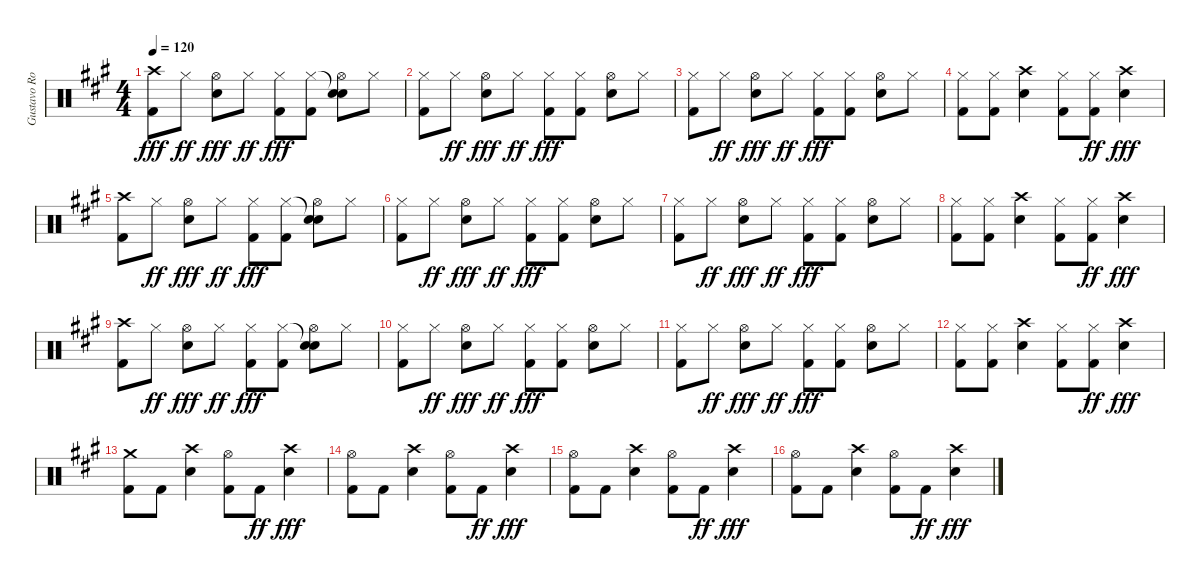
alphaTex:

\track ("Gustavo Rowek" "Gustavo Ro") {instrument percussion}
\staff {score}
\articulation defaults
\ts (4 4)
\tempo 120
\clef neutral
\ks a
("Crash high (hit)" "Kick (hit) 2").8{dy fff} "Hi-Hat (closed)".8{dy ff} ("Hi-Hat (open)" "Snare (hit) 2").8{dy fff} "Hi-Hat (closed)".8{dy ff} ("Hi-Hat (closed)" "Kick (hit) 2").8{dy fff} ("Hi-Hat (closed)" "Kick (hit) 2").8 ("Snare (hit)"{t} "Hi-Hat (open)" "Snare (hit) 2").8 "Hi-Hat (closed)".8 |
("Hi-Hat (closed)" "Kick (hit) 2").8 "Hi-Hat (closed)".8{dy ff} ("Hi-Hat (open)" "Snare (hit) 2").8{dy fff} "Hi-Hat (closed)".8{dy ff} ("Hi-Hat (closed)" "Kick (hit) 2").8{dy fff} ("Hi-Hat (closed)" "Kick (hit) 2").8 ("Hi-Hat (open)" "Snare (hit) 2").8 "Hi-Hat (closed)".8 |
("Hi-Hat (closed)" "Kick (hit) 2").8 "Hi-Hat (closed)".8{dy ff} ("Hi-Hat (open)" "Snare (hit) 2").8{dy fff} "Hi-Hat (closed)".8{dy ff} ("Hi-Hat (closed)" "Kick (hit) 2").8{dy fff} ("Hi-Hat (closed)" "Kick (hit) 2").8 ("Hi-Hat (open)" "Snare (hit) 2").8 "Hi-Hat (closed)".8 |
("Hi-Hat (closed)" "Kick (hit) 2").8 ("Hi-Hat (closed)" "Kick (hit) 2").8 ("Crash high (hit)" "Snare (hit) 2").4 ("Hi-Hat (closed)" "Kick (hit) 2").8 ("Hi-Hat (closed)" "Kick (hit) 2").8{dy ff} ("Crash high (hit)" "Snare (hit) 2").4{dy fff} |
("Crash high (hit)" "Kick (hit) 2").8 "Hi-Hat (closed)".8{dy ff} ("Hi-Hat (open)" "Snare (hit) 2").8{dy fff} "Hi-Hat (closed)".8{dy ff} ("Hi-Hat (closed)" "Kick (hit) 2").8{dy fff} ("Hi-Hat (closed)" "Kick (hit) 2").8 ("Snare (hit)"{t} "Hi-Hat (open)" "Snare (hit) 2").8 "Hi-Hat (closed)".8 |
("Hi-Hat (closed)" "Kick (hit) 2").8 "Hi-Hat (closed)".8{dy ff} ("Hi-Hat (open)" "Snare (hit) 2").8{dy fff} "Hi-Hat (closed)".8{dy ff} ("Hi-Hat (closed)" "Kick (hit) 2").8{dy fff} ("Hi-Hat (closed)" "Kick (hit) 2").8 ("Hi-Hat (open)" "Snare (hit) 2").8 "Hi-Hat (closed)".8 |
("Hi-Hat (closed)" "Kick (hit) 2").8 "Hi-Hat (closed)".8{dy ff} ("Hi-Hat (open)" "Snare (hit) 2").8{dy fff} "Hi-Hat (closed)".8{dy ff} ("Hi-Hat (closed)" "Kick (hit) 2").8{dy fff} ("Hi-Hat (closed)" "Kick (hit) 2").8 ("Hi-Hat (open)" "Snare (hit) 2").8 "Hi-Hat (closed)".8 |
("Hi-Hat (closed)" "Kick (hit) 2").8 ("Hi-Hat (closed)" "Kick (hit) 2").8 ("Crash high (hit)" "Snare (hit) 2").4 ("Hi-Hat (closed)" "Kick (hit) 2").8 ("Hi-Hat (closed)" "Kick (hit) 2").8{dy ff} ("Crash high (hit)" "Snare (hit) 2").4{dy fff} |
("Crash high (hit)" "Kick (hit) 2").8 "Hi-Hat (closed)".8{dy ff} ("Hi-Hat (open)" "Snare (hit) 2").8{dy fff} "Hi-Hat (closed)".8{dy ff} ("Hi-Hat (closed)" "Kick (hit) 2").8{dy fff} ("Hi-Hat (closed)" "Kick (hit) 2").8 ("Snare (hit)"{t} "Hi-Hat (open)" "Snare (hit) 2").8 "Hi-Hat (closed)".8 |
("Hi-Hat (closed)" "Kick (hit) 2").8 "Hi-Hat (closed)".8{dy ff} ("Hi-Hat (open)" "Snare (hit) 2").8{dy fff} "Hi-Hat (closed)".8{dy ff} ("Hi-Hat (closed)" "Kick (hit) 2").8{dy fff} ("Hi-Hat (closed)" "Kick (hit) 2").8 ("Hi-Hat (open)" "Snare (hit) 2").8 "Hi-Hat (closed)".8 |
("Hi-Hat (closed)" "Kick (hit) 2").8 "Hi-Hat (closed)".8{dy ff} ("Hi-Hat (open)" "Snare (hit) 2").8{dy fff} "Hi-Hat (closed)".8{dy ff} ("Hi-Hat (closed)" "Kick (hit) 2").8{dy fff} ("Hi-Hat (closed)" "Kick (hit) 2").8 ("Hi-Hat (open)" "Snare (hit) 2").8 "Hi-Hat (closed)".8 |
("Hi-Hat (closed)" "Kick (hit) 2").8 ("Hi-Hat (closed)" "Kick (hit) 2").8 ("Crash high (hit)" "Snare (hit) 2").4 ("Hi-Hat (closed)" "Kick (hit) 2").8 ("Hi-Hat (closed)" "Kick (hit) 2").8{dy ff} ("Crash high (hit)" "Snare (hit) 2").4{dy fff} |
("Crash medium (hit)" "Kick (hit) 2").8 "Kick (hit) 2".8 ("Crash high (hit)" "Snare (hit) 2").4 ("Hi-Hat (open)" "Kick (hit) 2").8 "Kick (hit) 2".8{dy ff} ("Crash high (hit)" "Snare (hit) 2").4{dy fff} |
("Hi-Hat (open)" "Kick (hit) 2").8 "Kick (hit) 2".8 ("Crash high (hit)" "Snare (hit) 2").4 ("Hi-Hat (open)" "Kick (hit) 2").8 "Kick (hit) 2".8{dy ff} ("Crash high (hit)" "Snare (hit) 2").4{dy fff} |
("Hi-Hat (open)" "Kick (hit) 2").8 "Kick (hit) 2".8 ("Crash high (hit)" "Snare (hit) 2").4 ("Hi-Hat (open)" "Kick (hit) 2").8 "Kick (hit) 2".8{dy ff} ("Crash high (hit)" "Snare (hit) 2").4{dy fff} |
("Hi-Hat (open)" "Kick (hit) 2").8 "Kick (hit) 2".8 ("Crash high (hit)" "Snare (hit) 2").4 ("Hi-Hat (open)" "Kick (hit) 2").8 "Kick (hit) 2".8{dy ff} ("Crash high (hit)" "Snare (hit) 2").4{dy fff}
